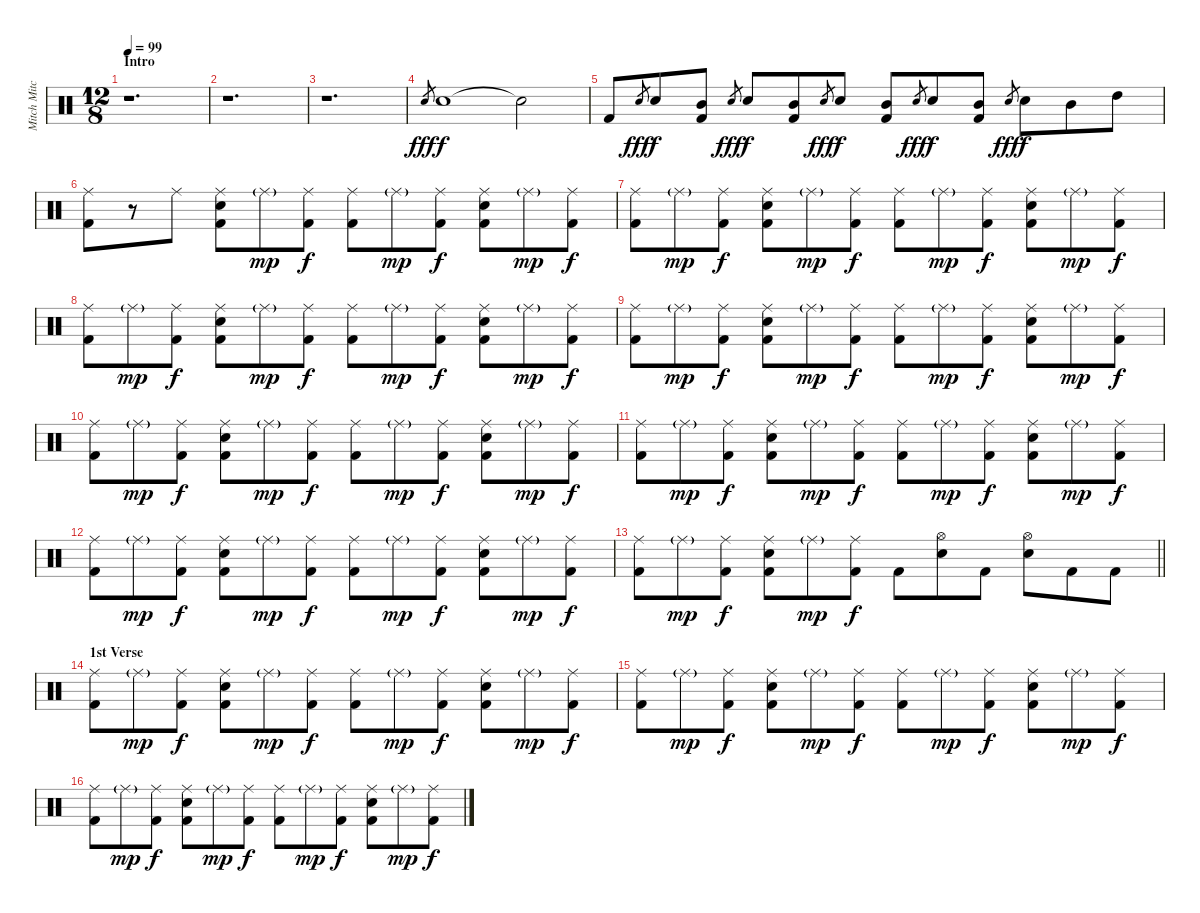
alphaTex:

\track ("Mitch Mitchell" "Mitch Mitc") {instrument percussion}
\staff {score}
\articulation defaults
\ts (12 8)
\section ("" "Intro")
\tempo 99
\clef neutral
\ks c
r.1{d dy fff} |
r.1{d} |
r.1{d} |
"Electric Snare (hit)".8{gr} "Electric Snare (hit)".1{dy f} "Snare (hit)"{t}.2 |
"Kick (hit) 2".8 "Electric Snare (hit)".8{gr dy fff} "Electric Snare (hit)".8{dy f} ("Mid Tom (hit)" "Kick (hit) 2").8 "Electric Snare (hit)".8{gr dy fff} "Electric Snare (hit)".8{dy f} ("Mid Tom (hit)" "Kick (hit) 2").8 "Electric Snare (hit)".8{gr dy fff} "Electric Snare (hit)".8{dy f} ("Mid Tom (hit)" "Kick (hit) 2").8 "Electric Snare (hit)".8{gr dy fff} "Electric Snare (hit)".8{dy f} ("Mid Tom (hit)" "Kick (hit) 2").8 "Electric Snare (hit)".8{gr dy fff} "Electric Snare (hit)".8{dy f} "Mid Tom (hit)".8 "High Tom (hit)".8 |
("Ride (middle)" "Kick (hit) 2").8 r.8 "Ride (middle)".8 ("Ride (middle)" "Electric Snare (hit)" "Kick (hit) 2").8 "Ride (middle)"{g}.8{dy mp} ("Ride (middle)" "Kick (hit) 2").8{dy f} ("Ride (middle)" "Kick (hit) 2").8 "Ride (middle)"{g}.8{dy mp} ("Ride (middle)" "Kick (hit) 2").8{dy f} ("Ride (middle)" "Electric Snare (hit)" "Kick (hit) 2").8 "Ride (middle)"{g}.8{dy mp} ("Ride (middle)" "Kick (hit) 2").8{dy f} |
("Ride (middle)" "Kick (hit) 2").8 "Ride (middle)"{g}.8{dy mp} ("Ride (middle)" "Kick (hit) 2").8{dy f} ("Ride (middle)" "Electric Snare (hit)" "Kick (hit) 2").8 "Ride (middle)"{g}.8{dy mp} ("Ride (middle)" "Kick (hit) 2").8{dy f} ("Ride (middle)" "Kick (hit) 2").8 "Ride (middle)"{g}.8{dy mp} ("Ride (middle)" "Kick (hit) 2").8{dy f} ("Ride (middle)" "Electric Snare (hit)" "Kick (hit) 2").8 "Ride (middle)"{g}.8{dy mp} ("Ride (middle)" "Kick (hit) 2").8{dy f} |
("Ride (middle)" "Kick (hit) 2").8 "Ride (middle)"{g}.8{dy mp} ("Ride (middle)" "Kick (hit) 2").8{dy f} ("Ride (middle)" "Electric Snare (hit)" "Kick (hit) 2").8 "Ride (middle)"{g}.8{dy mp} ("Ride (middle)" "Kick (hit) 2").8{dy f} ("Ride (middle)" "Kick (hit) 2").8 "Ride (middle)"{g}.8{dy mp} ("Ride (middle)" "Kick (hit) 2").8{dy f} ("Ride (middle)" "Electric Snare (hit)" "Kick (hit) 2").8 "Ride (middle)"{g}.8{dy mp} ("Ride (middle)" "Kick (hit) 2").8{dy f} |
("Ride (middle)" "Kick (hit) 2").8 "Ride (middle)"{g}.8{dy mp} ("Ride (middle)" "Kick (hit) 2").8{dy f} ("Ride (middle)" "Electric Snare (hit)" "Kick (hit) 2").8 "Ride (middle)"{g}.8{dy mp} ("Ride (middle)" "Kick (hit) 2").8{dy f} ("Ride (middle)" "Kick (hit) 2").8 "Ride (middle)"{g}.8{dy mp} ("Ride (middle)" "Kick (hit) 2").8{dy f} ("Ride (middle)" "Electric Snare (hit)" "Kick (hit) 2").8 "Ride (middle)"{g}.8{dy mp} ("Ride (middle)" "Kick (hit) 2").8{dy f} |
("Ride (middle)" "Kick (hit) 2").8 "Ride (middle)"{g}.8{dy mp} ("Ride (middle)" "Kick (hit) 2").8{dy f} ("Ride (middle)" "Electric Snare (hit)" "Kick (hit) 2").8 "Ride (middle)"{g}.8{dy mp} ("Ride (middle)" "Kick (hit) 2").8{dy f} ("Ride (middle)" "Kick (hit) 2").8 "Ride (middle)"{g}.8{dy mp} ("Ride (middle)" "Kick (hit) 2").8{dy f} ("Ride (middle)" "Electric Snare (hit)" "Kick (hit) 2").8 "Ride (middle)"{g}.8{dy mp} ("Ride (middle)" "Kick (hit) 2").8{dy f} |
("Ride (middle)" "Kick (hit) 2").8 "Ride (middle)"{g}.8{dy mp} ("Ride (middle)" "Kick (hit) 2").8{dy f} ("Ride (middle)" "Electric Snare (hit)" "Kick (hit) 2").8 "Ride (middle)"{g}.8{dy mp} ("Ride (middle)" "Kick (hit) 2").8{dy f} ("Ride (middle)" "Kick (hit) 2").8 "Ride (middle)"{g}.8{dy mp} ("Ride (middle)" "Kick (hit) 2").8{dy f} ("Ride (middle)" "Electric Snare (hit)" "Kick (hit) 2").8 "Ride (middle)"{g}.8{dy mp} ("Ride (middle)" "Kick (hit) 2").8{dy f} |
("Ride (middle)" "Kick (hit) 2").8 "Ride (middle)"{g}.8{dy mp} ("Ride (middle)" "Kick (hit) 2").8{dy f} ("Ride (middle)" "Electric Snare (hit)" "Kick (hit) 2").8 "Ride (middle)"{g}.8{dy mp} ("Ride (middle)" "Kick (hit) 2").8{dy f} ("Ride (middle)" "Kick (hit) 2").8 "Ride (middle)"{g}.8{dy mp} ("Ride (middle)" "Kick (hit) 2").8{dy f} ("Ride (middle)" "Electric Snare (hit)" "Kick (hit) 2").8 "Ride (middle)"{g}.8{dy mp} ("Ride (middle)" "Kick (hit) 2").8{dy f} |
\barLineRight lightlight
("Ride (middle)" "Kick (hit) 2").8 "Ride (middle)"{g}.8{dy mp} ("Ride (middle)" "Kick (hit) 2").8{dy f} ("Ride (middle)" "Electric Snare (hit)" "Kick (hit) 2").8 "Ride (middle)"{g}.8{dy mp} ("Ride (middle)" "Kick (hit) 2").8{dy f} "Kick (hit) 2".8 ("Hi-Hat (open)" "Electric Snare (hit)").8 "Kick (hit) 2".8 ("Hi-Hat (open)" "Electric Snare (hit)").8 "Kick (hit) 2".8 "Kick (hit) 2".8 |
\section ("" "1st Verse")
("Ride (middle)" "Kick (hit) 2").8 "Ride (middle)"{g}.8{dy mp} ("Ride (middle)" "Kick (hit) 2").8{dy f} ("Ride (middle)" "Electric Snare (hit)" "Kick (hit) 2").8 "Ride (middle)"{g}.8{dy mp} ("Ride (middle)" "Kick (hit) 2").8{dy f} ("Ride (middle)" "Kick (hit) 2").8 "Ride (middle)"{g}.8{dy mp} ("Ride (middle)" "Kick (hit) 2").8{dy f} ("Ride (middle)" "Electric Snare (hit)" "Kick (hit) 2").8 "Ride (middle)"{g}.8{dy mp} ("Ride (middle)" "Kick (hit) 2").8{dy f} |
("Ride (middle)" "Kick (hit) 2").8 "Ride (middle)"{g}.8{dy mp} ("Ride (middle)" "Kick (hit) 2").8{dy f} ("Ride (middle)" "Electric Snare (hit)" "Kick (hit) 2").8 "Ride (middle)"{g}.8{dy mp} ("Ride (middle)" "Kick (hit) 2").8{dy f} ("Ride (middle)" "Kick (hit) 2").8 "Ride (middle)"{g}.8{dy mp} ("Ride (middle)" "Kick (hit) 2").8{dy f} ("Ride (middle)" "Electric Snare (hit)" "Kick (hit) 2").8 "Ride (middle)"{g}.8{dy mp} ("Ride (middle)" "Kick (hit) 2").8{dy f} |
("Ride (middle)" "Kick (hit) 2").8 "Ride (middle)"{g}.8{dy mp} ("Ride (middle)" "Kick (hit) 2").8{dy f} ("Ride (middle)" "Electric Snare (hit)" "Kick (hit) 2").8 "Ride (middle)"{g}.8{dy mp} ("Ride (middle)" "Kick (hit) 2").8{dy f} ("Ride (middle)" "Kick (hit) 2").8 "Ride (middle)"{g}.8{dy mp} ("Ride (middle)" "Kick (hit) 2").8{dy f} ("Ride (middle)" "Electric Snare (hit)" "Kick (hit) 2").8 "Ride (middle)"{g}.8{dy mp} ("Ride (middle)" "Kick (hit) 2").8{dy f}
